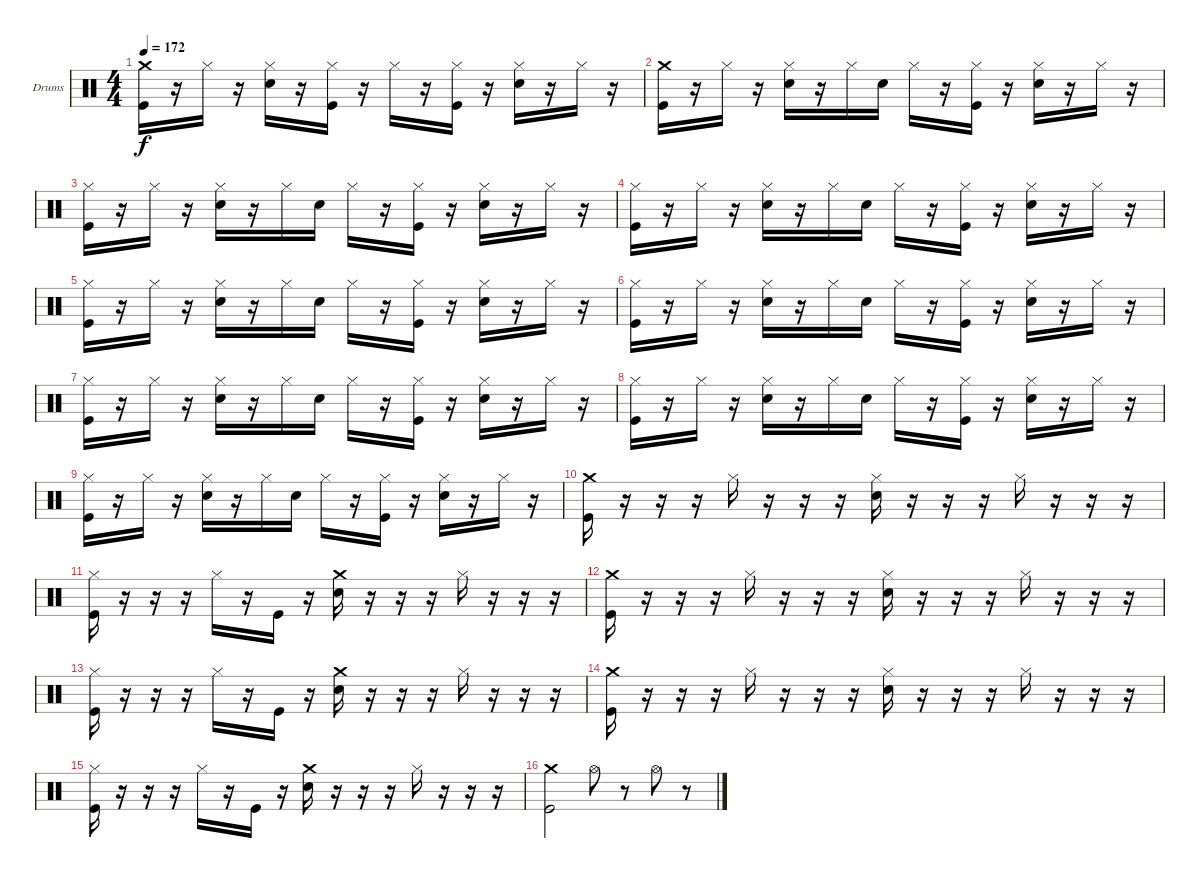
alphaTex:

\bracketExtendMode groupsimilarinstruments
\firstSystemTrackNameOrientation horizontal
\otherSystemsTrackNameOrientation horizontal
\track ("Drumkit" "Drums") {instrument percussion}
\staff {score}
\articulation defaults
\ts (4 4)
\tempo 172
\clef neutral
\ks c
("Kick (hit)" "Crash medium (hit)").16{dy f} r.16 "Hi-Hat (closed)".16 r.16 ("Snare (hit) 2" "Hi-Hat (closed)").16 r.16 ("Kick (hit)" "Hi-Hat (closed)").16 r.16 "Hi-Hat (closed)".16 r.16 ("Kick (hit)" "Hi-Hat (closed)").16 r.16 ("Snare (hit) 2" "Hi-Hat (closed)").16 r.16 "Hi-Hat (closed)".16 r.16 |
("Kick (hit)" "Crash medium (hit)").16 r.16 "Hi-Hat (closed)".16 r.16 ("Snare (hit) 2" "Hi-Hat (closed)").16 r.16 "Hi-Hat (closed)".16 "Snare (hit) 2".16 "Hi-Hat (closed)".16 r.16 ("Kick (hit)" "Hi-Hat (closed)").16 r.16 ("Snare (hit) 2" "Hi-Hat (closed)").16 r.16 "Hi-Hat (closed)".16 r.16 |
("Kick (hit)" "Hi-Hat (closed)").16 r.16 "Hi-Hat (closed)".16 r.16 ("Snare (hit) 2" "Hi-Hat (closed)").16 r.16 "Hi-Hat (closed)".16 "Snare (hit) 2".16 "Hi-Hat (closed)".16 r.16 ("Kick (hit)" "Hi-Hat (closed)").16 r.16 ("Snare (hit) 2" "Hi-Hat (closed)").16 r.16 "Hi-Hat (closed)".16 r.16 |
("Kick (hit)" "Hi-Hat (closed)").16 r.16 "Hi-Hat (closed)".16 r.16 ("Snare (hit) 2" "Hi-Hat (closed)").16 r.16 "Hi-Hat (closed)".16 "Snare (hit) 2".16 "Hi-Hat (closed)".16 r.16 ("Kick (hit)" "Hi-Hat (closed)").16 r.16 ("Snare (hit) 2" "Hi-Hat (closed)").16 r.16 "Hi-Hat (closed)".16 r.16 |
("Kick (hit)" "Hi-Hat (closed)").16 r.16 "Hi-Hat (closed)".16 r.16 ("Snare (hit) 2" "Hi-Hat (closed)").16 r.16 "Hi-Hat (closed)".16 "Snare (hit) 2".16 "Hi-Hat (closed)".16 r.16 ("Kick (hit)" "Hi-Hat (closed)").16 r.16 ("Snare (hit) 2" "Hi-Hat (closed)").16 r.16 "Hi-Hat (closed)".16 r.16 |
("Kick (hit)" "Hi-Hat (closed)").16 r.16 "Hi-Hat (closed)".16 r.16 ("Snare (hit) 2" "Hi-Hat (closed)").16 r.16 "Hi-Hat (closed)".16 "Snare (hit) 2".16 "Hi-Hat (closed)".16 r.16 ("Kick (hit)" "Hi-Hat (closed)").16 r.16 ("Snare (hit) 2" "Hi-Hat (closed)").16 r.16 "Hi-Hat (closed)".16 r.16 |
("Kick (hit)" "Hi-Hat (closed)").16 r.16 "Hi-Hat (closed)".16 r.16 ("Snare (hit) 2" "Hi-Hat (closed)").16 r.16 "Hi-Hat (closed)".16 "Snare (hit) 2".16 "Hi-Hat (closed)".16 r.16 ("Kick (hit)" "Hi-Hat (closed)").16 r.16 ("Snare (hit) 2" "Hi-Hat (closed)").16 r.16 "Hi-Hat (closed)".16 r.16 |
("Kick (hit)" "Hi-Hat (closed)").16 r.16 "Hi-Hat (closed)".16 r.16 ("Snare (hit) 2" "Hi-Hat (closed)").16 r.16 "Hi-Hat (closed)".16 "Snare (hit) 2".16 "Hi-Hat (closed)".16 r.16 ("Kick (hit)" "Hi-Hat (closed)").16 r.16 ("Snare (hit) 2" "Hi-Hat (closed)").16 r.16 "Hi-Hat (closed)".16 r.16 |
("Kick (hit)" "Hi-Hat (closed)").16 r.16 "Hi-Hat (closed)".16 r.16 ("Snare (hit) 2" "Hi-Hat (closed)").16 r.16 "Hi-Hat (closed)".16 "Snare (hit) 2".16 "Hi-Hat (closed)".16 r.16 ("Kick (hit)" "Hi-Hat (closed)").16 r.16 ("Snare (hit) 2" "Hi-Hat (closed)").16 r.16 "Hi-Hat (closed)".16 r.16 |
("Kick (hit)" "Crash medium (hit)").16 r.16 r.16 r.16 "Hi-Hat (closed)".16 r.16 r.16 r.16 ("Snare (hit) 2" "Hi-Hat (closed)").16 r.16 r.16 r.16 "Hi-Hat (closed)".16 r.16 r.16 r.16 |
("Kick (hit)" "Hi-Hat (closed)").16 r.16 r.16 r.16 "Hi-Hat (closed)".16 r.16 "Kick (hit)".16 r.16 ("Snare (hit) 2" "Crash medium (hit)").16 r.16 r.16 r.16 "Hi-Hat (closed)".16 r.16 r.16 r.16 |
("Kick (hit)" "Crash medium (hit)").16 r.16 r.16 r.16 "Hi-Hat (closed)".16 r.16 r.16 r.16 ("Snare (hit) 2" "Hi-Hat (closed)").16 r.16 r.16 r.16 "Hi-Hat (closed)".16 r.16 r.16 r.16 |
("Kick (hit)" "Hi-Hat (closed)").16 r.16 r.16 r.16 "Hi-Hat (closed)".16 r.16 "Kick (hit)".16 r.16 ("Snare (hit) 2" "Crash medium (hit)").16 r.16 r.16 r.16 "Hi-Hat (closed)".16 r.16 r.16 r.16 |
("Kick (hit)" "Crash medium (hit)").16 r.16 r.16 r.16 "Hi-Hat (closed)".16 r.16 r.16 r.16 ("Snare (hit) 2" "Hi-Hat (closed)").16 r.16 r.16 r.16 "Hi-Hat (closed)".16 r.16 r.16 r.16 |
("Kick (hit)" "Hi-Hat (closed)").16 r.16 r.16 r.16 "Hi-Hat (closed)".16 r.16 "Kick (hit)".16 r.16 ("Snare (hit) 2" "Crash medium (hit)").16 r.16 r.16 r.16 "Hi-Hat (closed)".16 r.16 r.16 r.16 |
("Kick (hit)" "Crash medium (hit)").2 "Hi-Hat (open)".8 r.8 "Hi-Hat (open)".8 r.8
